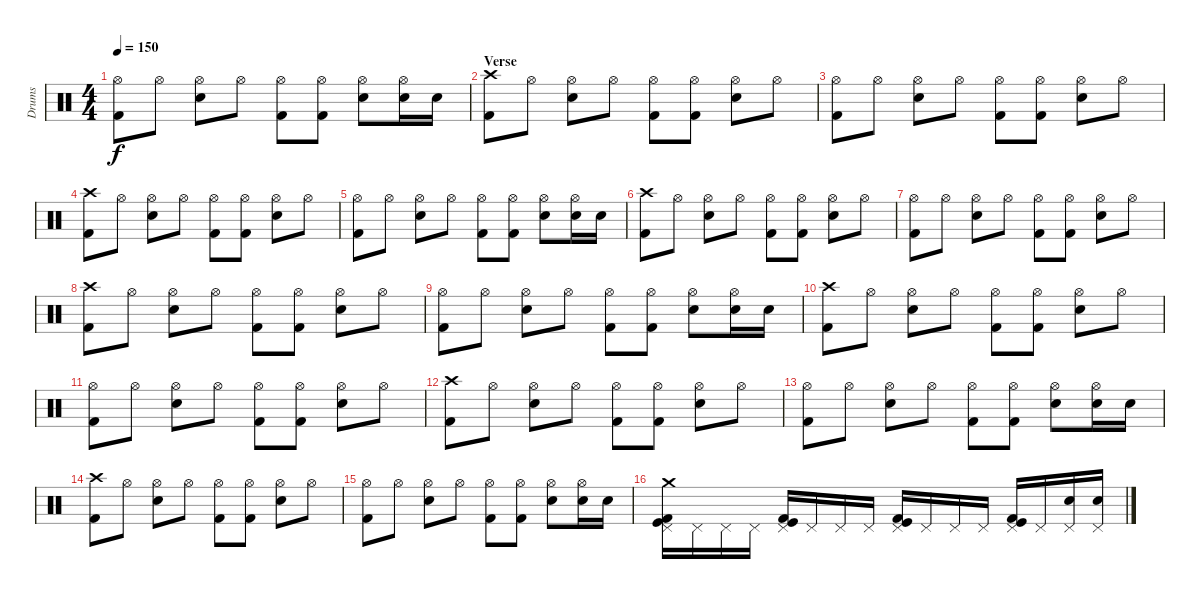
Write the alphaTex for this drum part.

\track ("Drums" "Drums") {instrument percussion}
\staff {score}
\articulation defaults
\ts (4 4)
\tempo 150
\clef neutral
\ks c
("Hi-Hat (open)" "Kick (hit) 2").8{dy f} "Hi-Hat (open)".8 ("Hi-Hat (open)" "Snare (hit) 2").8 "Hi-Hat (open)".8 ("Hi-Hat (open)" "Kick (hit) 2").8 ("Hi-Hat (open)" "Kick (hit) 2").8 ("Hi-Hat (open)" "Snare (hit) 2").8 ("Hi-Hat (open)" "Snare (hit) 2").16 "Snare (hit) 2".16 |
\section ("" "Verse")
("Crash high (hit)" "Kick (hit) 2").8 "Hi-Hat (open)".8 ("Hi-Hat (open)" "Snare (hit) 2").8 "Hi-Hat (open)".8 ("Hi-Hat (open)" "Kick (hit) 2").8 ("Hi-Hat (open)" "Kick (hit) 2").8 ("Hi-Hat (open)" "Snare (hit) 2").8 "Hi-Hat (open)".8 |
("Hi-Hat (open)" "Kick (hit) 2").8 "Hi-Hat (open)".8 ("Hi-Hat (open)" "Snare (hit) 2").8 "Hi-Hat (open)".8 ("Hi-Hat (open)" "Kick (hit) 2").8 ("Hi-Hat (open)" "Kick (hit) 2").8 ("Hi-Hat (open)" "Snare (hit) 2").8 "Hi-Hat (open)".8 |
("Crash high (hit)" "Kick (hit) 2").8 "Hi-Hat (open)".8 ("Hi-Hat (open)" "Snare (hit) 2").8 "Hi-Hat (open)".8 ("Hi-Hat (open)" "Kick (hit) 2").8 ("Hi-Hat (open)" "Kick (hit) 2").8 ("Hi-Hat (open)" "Snare (hit) 2").8 "Hi-Hat (open)".8 |
("Hi-Hat (open)" "Kick (hit) 2").8 "Hi-Hat (open)".8 ("Hi-Hat (open)" "Snare (hit) 2").8 "Hi-Hat (open)".8 ("Hi-Hat (open)" "Kick (hit) 2").8 ("Hi-Hat (open)" "Kick (hit) 2").8 ("Hi-Hat (open)" "Snare (hit) 2").8 ("Hi-Hat (open)" "Snare (hit) 2").16 "Snare (hit) 2".16 |
("Crash high (hit)" "Kick (hit) 2").8 "Hi-Hat (open)".8 ("Hi-Hat (open)" "Snare (hit) 2").8 "Hi-Hat (open)".8 ("Hi-Hat (open)" "Kick (hit) 2").8 ("Hi-Hat (open)" "Kick (hit) 2").8 ("Hi-Hat (open)" "Snare (hit) 2").8 "Hi-Hat (open)".8 |
("Hi-Hat (open)" "Kick (hit) 2").8 "Hi-Hat (open)".8 ("Hi-Hat (open)" "Snare (hit) 2").8 "Hi-Hat (open)".8 ("Hi-Hat (open)" "Kick (hit) 2").8 ("Hi-Hat (open)" "Kick (hit) 2").8 ("Hi-Hat (open)" "Snare (hit) 2").8 "Hi-Hat (open)".8 |
("Crash high (hit)" "Kick (hit) 2").8 "Hi-Hat (open)".8 ("Hi-Hat (open)" "Snare (hit) 2").8 "Hi-Hat (open)".8 ("Hi-Hat (open)" "Kick (hit) 2").8 ("Hi-Hat (open)" "Kick (hit) 2").8 ("Hi-Hat (open)" "Snare (hit) 2").8 "Hi-Hat (open)".8 |
("Hi-Hat (open)" "Kick (hit) 2").8 "Hi-Hat (open)".8 ("Hi-Hat (open)" "Snare (hit) 2").8 "Hi-Hat (open)".8 ("Hi-Hat (open)" "Kick (hit) 2").8 ("Hi-Hat (open)" "Kick (hit) 2").8 ("Hi-Hat (open)" "Snare (hit) 2").8 ("Hi-Hat (open)" "Snare (hit) 2").16 "Snare (hit) 2".16 |
("Crash high (hit)" "Kick (hit) 2").8 "Hi-Hat (open)".8 ("Hi-Hat (open)" "Snare (hit) 2").8 "Hi-Hat (open)".8 ("Hi-Hat (open)" "Kick (hit) 2").8 ("Hi-Hat (open)" "Kick (hit) 2").8 ("Hi-Hat (open)" "Snare (hit) 2").8 "Hi-Hat (open)".8 |
("Hi-Hat (open)" "Kick (hit) 2").8 "Hi-Hat (open)".8 ("Hi-Hat (open)" "Snare (hit) 2").8 "Hi-Hat (open)".8 ("Hi-Hat (open)" "Kick (hit) 2").8 ("Hi-Hat (open)" "Kick (hit) 2").8 ("Hi-Hat (open)" "Snare (hit) 2").8 "Hi-Hat (open)".8 |
("Crash high (hit)" "Kick (hit) 2").8 "Hi-Hat (open)".8 ("Hi-Hat (open)" "Snare (hit) 2").8 "Hi-Hat (open)".8 ("Hi-Hat (open)" "Kick (hit) 2").8 ("Hi-Hat (open)" "Kick (hit) 2").8 ("Hi-Hat (open)" "Snare (hit) 2").8 "Hi-Hat (open)".8 |
("Hi-Hat (open)" "Kick (hit) 2").8 "Hi-Hat (open)".8 ("Hi-Hat (open)" "Snare (hit) 2").8 "Hi-Hat (open)".8 ("Hi-Hat (open)" "Kick (hit) 2").8 ("Hi-Hat (open)" "Kick (hit) 2").8 ("Hi-Hat (open)" "Snare (hit) 2").8 ("Hi-Hat (open)" "Snare (hit) 2").16 "Snare (hit) 2".16 |
("Crash high (hit)" "Kick (hit) 2").8 "Hi-Hat (open)".8 ("Hi-Hat (open)" "Snare (hit) 2").8 "Hi-Hat (open)".8 ("Hi-Hat (open)" "Kick (hit) 2").8 ("Hi-Hat (open)" "Kick (hit) 2").8 ("Hi-Hat (open)" "Snare (hit) 2").8 "Hi-Hat (open)".8 |
("Hi-Hat (open)" "Kick (hit) 2").8 "Hi-Hat (open)".8 ("Hi-Hat (open)" "Snare (hit) 2").8 "Hi-Hat (open)".8 ("Hi-Hat (open)" "Kick (hit) 2").8 ("Hi-Hat (open)" "Kick (hit) 2").8 ("Hi-Hat (open)" "Snare (hit) 2").8 ("Hi-Hat (open)" "Snare (hit) 2").16 "Snare (hit) 2".16 |
("Pedal Hi-Hat (hit)" "Kick (hit) 2" "Kick (hit)" "Crash medium (hit)").16 "Pedal Hi-Hat (hit)".16 "Pedal Hi-Hat (hit)".16 "Pedal Hi-Hat (hit)".16 ("Pedal Hi-Hat (hit)" "Kick (hit) 2" "Kick (hit)").16 "Pedal Hi-Hat (hit)".16 "Pedal Hi-Hat (hit)".16 "Pedal Hi-Hat (hit)".16 ("Pedal Hi-Hat (hit)" "Kick (hit) 2" "Kick (hit)").16 "Pedal Hi-Hat (hit)".16 "Pedal Hi-Hat (hit)".16 "Pedal Hi-Hat (hit)".16 ("Pedal Hi-Hat (hit)" "Kick (hit) 2" "Kick (hit)").16 "Pedal Hi-Hat (hit)".16 ("Pedal Hi-Hat (hit)" "Snare (hit) 2").16 ("Pedal Hi-Hat (hit)" "Snare (hit) 2").16
